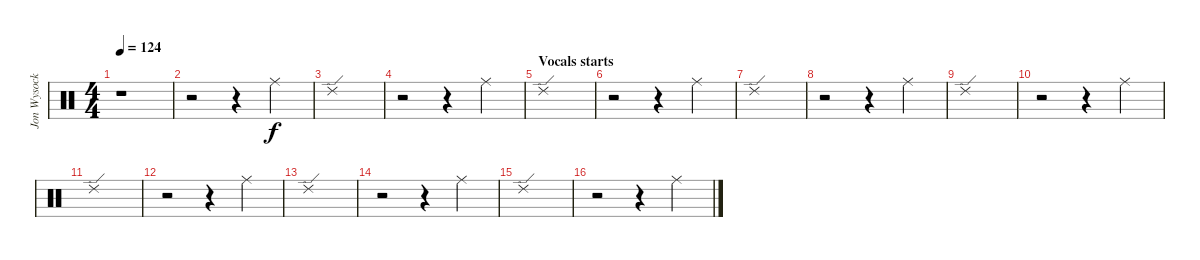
\track ("Jon Wysocki - Drums" "Jon Wysock") {instrument percussion}
\staff {score}
\articulation defaults
\ts (4 4)
\section ("" "")
\tempo 124
\clef neutral
\ks c
r.1{dy f} |
r.2 r.4 "Ride (middle)".4 |
"Ride (edge) 2".1 |
r.2 r.4 "Ride (middle)".4 |
\section ("" "Vocals starts")
"Ride (edge) 2".1 |
r.2 r.4 "Ride (middle)".4 |
"Ride (edge) 2".1 |
r.2 r.4 "Ride (middle)".4 |
"Ride (edge) 2".1 |
r.2 r.4 "Ride (middle)".4 |
"Ride (edge) 2".1 |
r.2 r.4 "Ride (middle)".4 |
\section ("" "")
"Ride (edge) 2".1 |
r.2 r.4 "Ride (middle)".4 |
"Ride (edge) 2".1 |
r.2 r.4 "Ride (middle)".4
